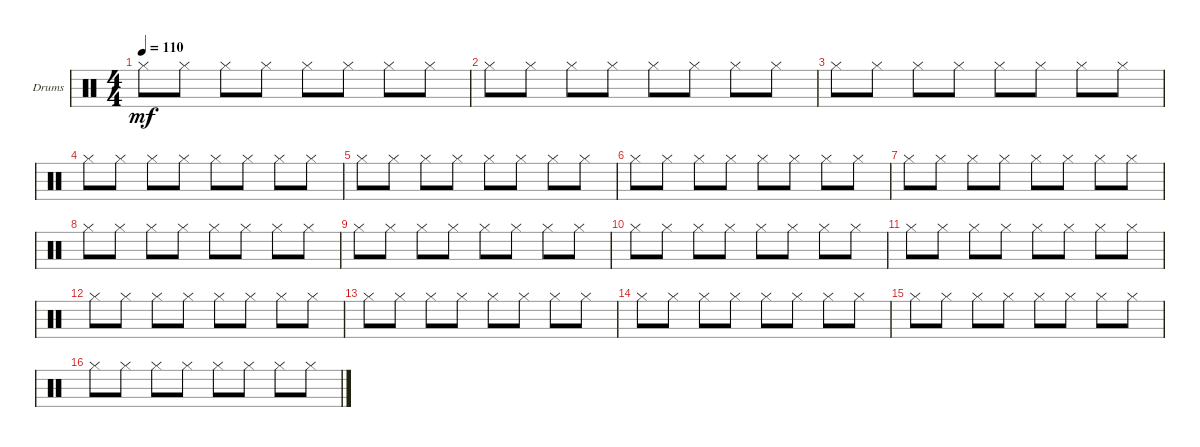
\defaultSystemsLayout 4
\bracketExtendMode groupsimilarinstruments
\firstSystemTrackNameOrientation horizontal
\otherSystemsTrackNameOrientation horizontal
\track ("Brum auxiliar" "Drums") {instrument percussion}
\staff {score}
\articulation defaults
\ts (4 4)
\tempo 110
\clef neutral
\scale
0.333333
\ks c "Hi-Hat (closed)".8{dy mf} "Hi-Hat (closed)".8 "Hi-Hat (closed)".8 "Hi-Hat (closed)".8 "Hi-Hat (closed)".8 "Hi-Hat (closed)".8 "Hi-Hat (closed)".8 "Hi-Hat (closed)".8
|
\scale
0.333333 "Hi-Hat (closed)".8 "Hi-Hat (closed)".8 "Hi-Hat (closed)".8 "Hi-Hat (closed)".8 "Hi-Hat (closed)".8 "Hi-Hat (closed)".8 "Hi-Hat (closed)".8 "Hi-Hat (closed)".8 |
\scale
0.333333 "Hi-Hat (closed)".8 "Hi-Hat (closed)".8 "Hi-Hat (closed)".8 "Hi-Hat (closed)".8 "Hi-Hat (closed)".8 "Hi-Hat (closed)".8 "Hi-Hat (closed)".8 "Hi-Hat (closed)".8 |
\scale
0.333333 "Hi-Hat (closed)".8 "Hi-Hat (closed)".8 "Hi-Hat (closed)".8 "Hi-Hat (closed)".8 "Hi-Hat (closed)".8 "Hi-Hat (closed)".8 "Hi-Hat (closed)".8 "Hi-Hat (closed)".8 |
\scale
0.333333 "Hi-Hat (closed)".8 "Hi-Hat (closed)".8 "Hi-Hat (closed)".8 "Hi-Hat (closed)".8 "Hi-Hat (closed)".8 "Hi-Hat (closed)".8 "Hi-Hat (closed)".8 "Hi-Hat (closed)".8 |
\scale
0.333333 "Hi-Hat (closed)".8 "Hi-Hat (closed)".8 "Hi-Hat (closed)".8 "Hi-Hat (closed)".8 "Hi-Hat (closed)".8 "Hi-Hat (closed)".8 "Hi-Hat (closed)".8 "Hi-Hat (closed)".8 |
\scale
0.333333 "Hi-Hat (closed)".8 "Hi-Hat (closed)".8 "Hi-Hat (closed)".8 "Hi-Hat (closed)".8 "Hi-Hat (closed)".8 "Hi-Hat (closed)".8 "Hi-Hat (closed)".8 "Hi-Hat (closed)".8 |
\scale
0.333333 "Hi-Hat (closed)".8 "Hi-Hat (closed)".8 "Hi-Hat (closed)".8 "Hi-Hat (closed)".8 "Hi-Hat (closed)".8 "Hi-Hat (closed)".8 "Hi-Hat (closed)".8 "Hi-Hat (closed)".8 |
\scale
0.333333 "Hi-Hat (closed)".8 "Hi-Hat (closed)".8 "Hi-Hat (closed)".8 "Hi-Hat (closed)".8 "Hi-Hat (closed)".8 "Hi-Hat (closed)".8 "Hi-Hat (closed)".8 "Hi-Hat (closed)".8 |
\scale
0.333333 "Hi-Hat (closed)".8 "Hi-Hat (closed)".8 "Hi-Hat (closed)".8 "Hi-Hat (closed)".8 "Hi-Hat (closed)".8 "Hi-Hat (closed)".8 "Hi-Hat (closed)".8 "Hi-Hat (closed)".8 |
\scale
0.333333 "Hi-Hat (closed)".8 "Hi-Hat (closed)".8 "Hi-Hat (closed)".8 "Hi-Hat (closed)".8 "Hi-Hat (closed)".8 "Hi-Hat (closed)".8 "Hi-Hat (closed)".8 "Hi-Hat (closed)".8 |
\scale
0.333333 "Hi-Hat (closed)".8 "Hi-Hat (closed)".8 "Hi-Hat (closed)".8 "Hi-Hat (closed)".8 "Hi-Hat (closed)".8 "Hi-Hat (closed)".8 "Hi-Hat (closed)".8 "Hi-Hat (closed)".8 |
\scale
0.333333 "Hi-Hat (closed)".8 "Hi-Hat (closed)".8 "Hi-Hat (closed)".8 "Hi-Hat (closed)".8 "Hi-Hat (closed)".8 "Hi-Hat (closed)".8 "Hi-Hat (closed)".8 "Hi-Hat (closed)".8 |
\scale
0.333333 "Hi-Hat (closed)".8 "Hi-Hat (closed)".8 "Hi-Hat (closed)".8 "Hi-Hat (closed)".8 "Hi-Hat (closed)".8 "Hi-Hat (closed)".8 "Hi-Hat (closed)".8 "Hi-Hat (closed)".8 |
\scale
0.333333 "Hi-Hat (closed)".8 "Hi-Hat (closed)".8 "Hi-Hat (closed)".8 "Hi-Hat (closed)".8 "Hi-Hat (closed)".8 "Hi-Hat (closed)".8 "Hi-Hat (closed)".8 "Hi-Hat (closed)".8 |
\scale
0.333333 "Hi-Hat (closed)".8 "Hi-Hat (closed)".8 "Hi-Hat (closed)".8 "Hi-Hat (closed)".8 "Hi-Hat (closed)".8 "Hi-Hat (closed)".8 "Hi-Hat (closed)".8 "Hi-Hat (closed)".8
